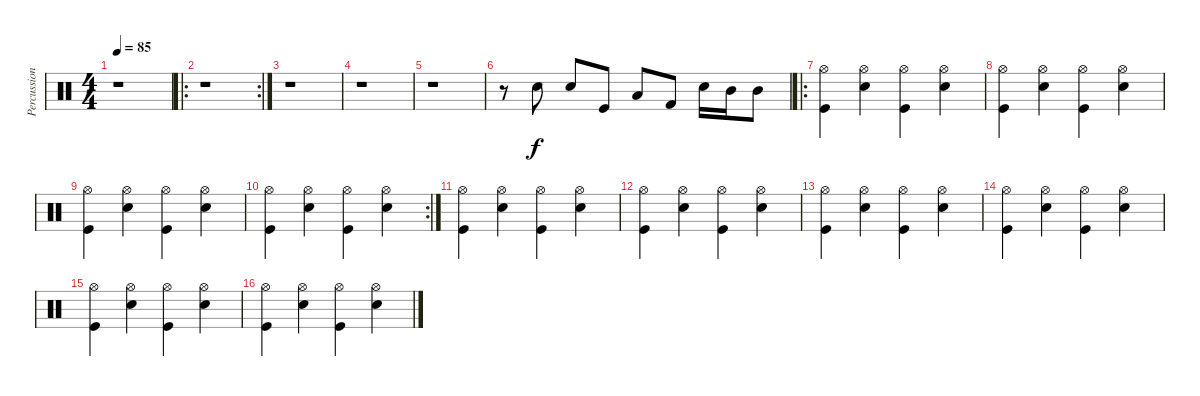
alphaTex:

\track ("Percussions" "Percussion") {instrument percussion}
\staff {score}
\articulation defaults
\ts (4 4)
\tempo 85
\clef neutral
\ks c
r.1{dy f} |
\ro
\rc 2
r.1 |
r.1 |
r.1 |
r.1 |
r.8 "Snare (hit) 2".8 "Snare (hit) 2".8 "Kick (hit)".8 "Low Tom (hit)".8 "Kick (hit) 2".8 "Snare (hit) 2".16 "Mid Tom (hit)".16 "Mid Tom (hit)".8 |
\ro
("Hi-Hat (open)" "Kick (hit)").4 ("Hi-Hat (open)" "Snare (hit) 2").4 ("Hi-Hat (open)" "Kick (hit)").4 ("Hi-Hat (open)" "Snare (hit) 2").4 |
("Hi-Hat (open)" "Kick (hit)").4 ("Hi-Hat (open)" "Snare (hit) 2").4 ("Hi-Hat (open)" "Kick (hit)").4 ("Hi-Hat (open)" "Snare (hit) 2").4 |
("Hi-Hat (open)" "Kick (hit)").4 ("Hi-Hat (open)" "Snare (hit) 2").4 ("Hi-Hat (open)" "Kick (hit)").4 ("Hi-Hat (open)" "Snare (hit) 2").4 |
\rc 2
("Hi-Hat (open)" "Kick (hit)").4 ("Hi-Hat (open)" "Snare (hit) 2").4 ("Hi-Hat (open)" "Kick (hit)").4 ("Hi-Hat (open)" "Snare (hit) 2").4 |
("Hi-Hat (open)" "Kick (hit)").4 ("Hi-Hat (open)" "Snare (hit) 2").4 ("Hi-Hat (open)" "Kick (hit)").4 ("Hi-Hat (open)" "Snare (hit) 2").4 |
("Hi-Hat (open)" "Kick (hit)").4 ("Hi-Hat (open)" "Snare (hit) 2").4 ("Hi-Hat (open)" "Kick (hit)").4 ("Hi-Hat (open)" "Snare (hit) 2").4 |
("Hi-Hat (open)" "Kick (hit)").4 ("Hi-Hat (open)" "Snare (hit) 2").4 ("Hi-Hat (open)" "Kick (hit)").4 ("Hi-Hat (open)" "Snare (hit) 2").4 |
("Hi-Hat (open)" "Kick (hit)").4 ("Hi-Hat (open)" "Snare (hit) 2").4 ("Hi-Hat (open)" "Kick (hit)").4 ("Hi-Hat (open)" "Snare (hit) 2").4 |
("Hi-Hat (open)" "Kick (hit)").4 ("Hi-Hat (open)" "Snare (hit) 2").4 ("Hi-Hat (open)" "Kick (hit)").4 ("Hi-Hat (open)" "Snare (hit) 2").4 |
("Hi-Hat (open)" "Kick (hit)").4 ("Hi-Hat (open)" "Snare (hit) 2").4 ("Hi-Hat (open)" "Kick (hit)").4 ("Hi-Hat (open)" "Snare (hit) 2").4
